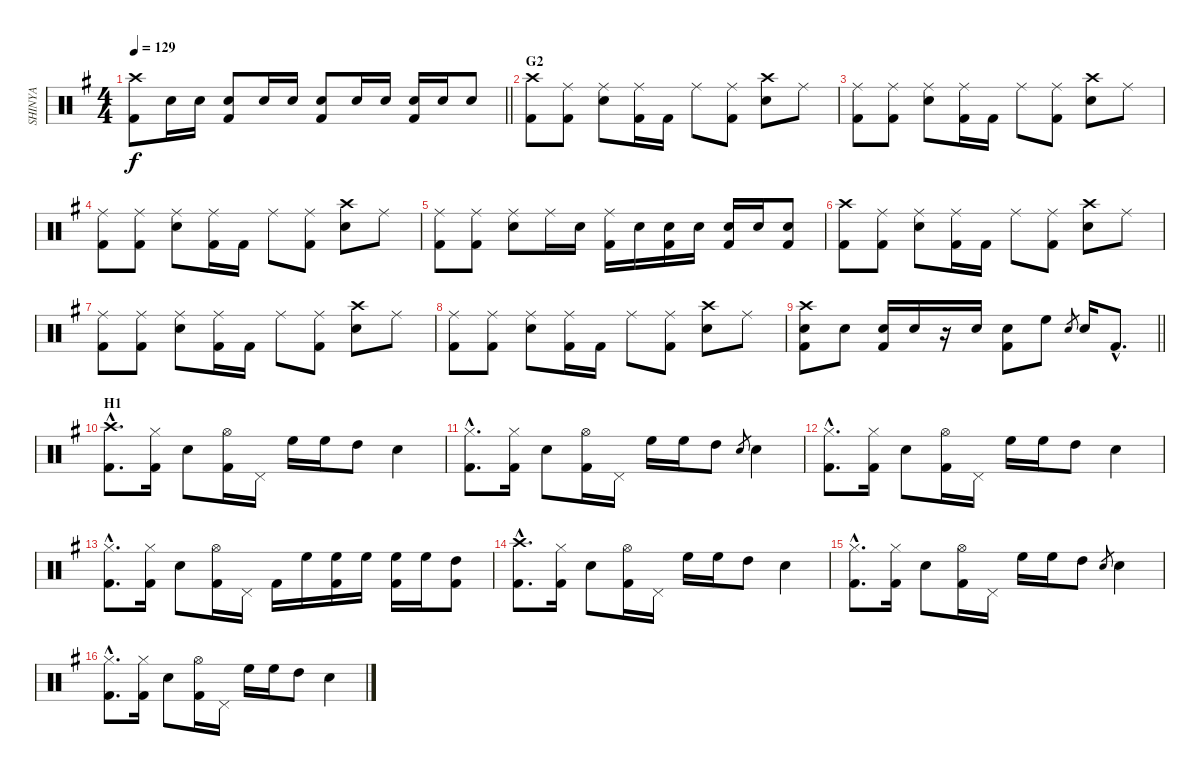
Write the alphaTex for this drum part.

\track ("SHINYA" "SHINYA") {instrument percussion}
\staff {score}
\articulation defaults
\ts (4 4)
\tempo 129
\clef neutral
\barLineRight lightlight
\ks g
("Crash high (hit)" "Kick (hit) 2").8{dy f} "Snare (hit) 2".16 "Snare (hit) 2".16 ("Snare (hit) 2" "Kick (hit) 2").8 "Snare (hit) 2".16 "Snare (hit) 2".16 ("Snare (hit) 2" "Kick (hit) 2").8 "Snare (hit) 2".16 "Snare (hit) 2".16 ("Snare (hit) 2" "Kick (hit) 2").16 "Snare (hit) 2".16 "Snare (hit) 2".8 |
\section ("" "G2")
("Crash high (hit)" "Kick (hit) 2").8 ("Ride (middle)" "Kick (hit) 2").8 ("Ride (middle)" "Snare (hit) 2").8 ("Ride (middle)" "Kick (hit) 2").16 "Kick (hit) 2".16 "Ride (middle)".8 ("Ride (middle)" "Kick (hit) 2").8 ("Crash high (hit)" "Snare (hit) 2").8 "Ride (middle)".8 |
("Ride (middle)" "Kick (hit) 2").8 ("Ride (middle)" "Kick (hit) 2").8 ("Ride (middle)" "Snare (hit) 2").8 ("Ride (middle)" "Kick (hit) 2").16 "Kick (hit) 2".16 "Ride (middle)".8 ("Ride (middle)" "Kick (hit) 2").8 ("Crash high (hit)" "Snare (hit) 2").8 "Ride (middle)".8 |
("Ride (middle)" "Kick (hit) 2").8 ("Ride (middle)" "Kick (hit) 2").8 ("Ride (middle)" "Snare (hit) 2").8 ("Ride (middle)" "Kick (hit) 2").16 "Kick (hit) 2".16 "Ride (middle)".8 ("Ride (middle)" "Kick (hit) 2").8 ("Crash high (hit)" "Snare (hit) 2").8 "Ride (middle)".8 |
("Ride (middle)" "Kick (hit) 2").8 ("Ride (middle)" "Kick (hit) 2").8 ("Ride (middle)" "Snare (hit) 2").8 "Ride (middle)".16 "Snare (hit) 2".16 ("Ride (middle)" "Kick (hit) 2").16 "Snare (hit) 2".16 ("Kick (hit) 2" "Snare (hit) 2").16 "Snare (hit) 2".16 ("Snare (hit) 2" "Kick (hit) 2").16 "Snare (hit) 2".16 ("Snare (hit) 2" "Kick (hit) 2").8 |
("Crash high (hit)" "Kick (hit) 2").8 ("Ride (middle)" "Kick (hit) 2").8 ("Ride (middle)" "Snare (hit) 2").8 ("Ride (middle)" "Kick (hit) 2").16 "Kick (hit) 2".16 "Ride (middle)".8 ("Ride (middle)" "Kick (hit) 2").8 ("Crash high (hit)" "Snare (hit) 2").8 "Ride (middle)".8 |
("Ride (middle)" "Kick (hit) 2").8 ("Ride (middle)" "Kick (hit) 2").8 ("Ride (middle)" "Snare (hit) 2").8 ("Ride (middle)" "Kick (hit) 2").16 "Kick (hit) 2".16 "Ride (middle)".8 ("Ride (middle)" "Kick (hit) 2").8 ("Crash high (hit)" "Snare (hit) 2").8 "Ride (middle)".8 |
("Ride (middle)" "Kick (hit) 2").8 ("Ride (middle)" "Kick (hit) 2").8 ("Ride (middle)" "Snare (hit) 2").8 ("Ride (middle)" "Kick (hit) 2").16 "Kick (hit) 2".16 "Ride (middle)".8 ("Ride (middle)" "Kick (hit) 2").8 ("Crash high (hit)" "Snare (hit) 2").8 "Ride (middle)".8 |
\barLineRight lightlight
("Crash high (hit)" "Kick (hit) 2" "Snare (hit) 2").8 "Snare (hit) 2".8 ("Snare (hit) 2" "Kick (hit) 2").16 "Snare (hit) 2".16 r.16 "Snare (hit) 2".16 ("Kick (hit) 2" "Snare (hit) 2").8 "High Floor Tom (hit)".8 "Snare (hit) 2".8{gr} "Snare (hit) 2".16 "Kick (hit) 2"{hac}.8{d} |
\section ("" "H1")
("Crash high (hit)"{hac} "Kick (hit) 2"{hac}).8{d} ("Hi-Hat (closed)" "Kick (hit) 2").16 "Snare (hit) 2".8 ("Hi-Hat (open)" "Kick (hit) 2").16 "Pedal Hi-Hat (hit)".16 "High Floor Tom (hit)".16 "High Floor Tom (hit)".16 "High Tom (hit)".8 "Snare (hit) 2".4 |
("Hi-Hat (closed)"{hac} "Kick (hit) 2"{hac}).8{d} ("Hi-Hat (closed)" "Kick (hit) 2").16 "Snare (hit) 2".8 ("Hi-Hat (open)" "Kick (hit) 2").16 "Pedal Hi-Hat (hit)".16 "High Floor Tom (hit)".16 "High Floor Tom (hit)".16 "High Tom (hit)".8 "Snare (hit) 2".8{gr} "Snare (hit) 2".4 |
("Hi-Hat (closed)"{hac} "Kick (hit) 2"{hac}).8{d} ("Hi-Hat (closed)" "Kick (hit) 2").16 "Snare (hit) 2".8 ("Hi-Hat (open)" "Kick (hit) 2").16 "Pedal Hi-Hat (hit)".16 "High Floor Tom (hit)".16 "High Floor Tom (hit)".16 "High Tom (hit)".8 "Snare (hit) 2".4 |
("Hi-Hat (closed)"{hac} "Kick (hit) 2"{hac}).8{d} ("Hi-Hat (closed)" "Kick (hit) 2").16 "Snare (hit) 2".8 ("Hi-Hat (open)" "Kick (hit) 2").16 "Pedal Hi-Hat (hit)".16 "Kick (hit) 2".16 "High Floor Tom (hit)".16 ("High Floor Tom (hit)" "Kick (hit) 2").16 "High Floor Tom (hit)".16 ("High Floor Tom (hit)" "Kick (hit) 2").16 "High Floor Tom (hit)".16 ("High Tom (hit)" "Kick (hit) 2").8 |
("Crash high (hit)"{hac} "Kick (hit) 2"{hac}).8{d} ("Hi-Hat (closed)" "Kick (hit) 2").16 "Snare (hit) 2".8 ("Hi-Hat (open)" "Kick (hit) 2").16 "Pedal Hi-Hat (hit)".16 "High Floor Tom (hit)".16 "High Floor Tom (hit)".16 "High Tom (hit)".8 "Snare (hit) 2".4 |
("Hi-Hat (closed)"{hac} "Kick (hit) 2"{hac}).8{d} ("Hi-Hat (closed)" "Kick (hit) 2").16 "Snare (hit) 2".8 ("Hi-Hat (open)" "Kick (hit) 2").16 "Pedal Hi-Hat (hit)".16 "High Floor Tom (hit)".16 "High Floor Tom (hit)".16 "High Tom (hit)".8 "Snare (hit) 2".8{gr} "Snare (hit) 2".4 |
("Hi-Hat (closed)"{hac} "Kick (hit) 2"{hac}).8{d} ("Hi-Hat (closed)" "Kick (hit) 2").16 "Snare (hit) 2".8 ("Hi-Hat (open)" "Kick (hit) 2").16 "Pedal Hi-Hat (hit)".16 "High Floor Tom (hit)".16 "High Floor Tom (hit)".16 "High Tom (hit)".8 "Snare (hit) 2".4
